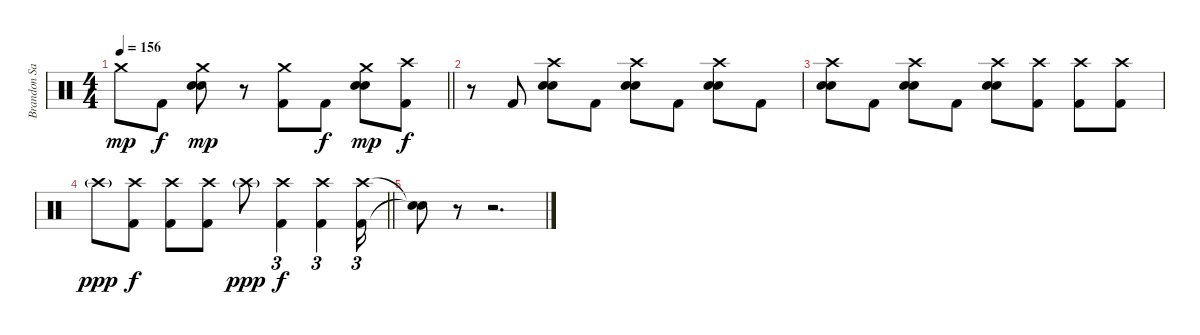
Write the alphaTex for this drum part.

\track ("Brandon Saller" "Brandon Sa") {instrument percussion}
\staff {score}
\articulation defaults
\ts (4 4)
\tempo 156
\clef neutral
\barLineRight lightlight
\ks c "Crash medium (hit)".8{dy mp} "Kick (hit) 2".8{dy f}
("Crash medium (hit)" "Snare (hit) 2" "Electric Snare (hit)").8{dy mp} r.8 ("Crash medium (hit)" "Kick (hit) 2").8 "Kick (hit) 2".8{dy f} ("Crash medium (hit)" "Snare (hit) 2" "Electric Snare (hit)").8{dy mp} ("Crash high (hit)" "Kick (hit) 2").8{dy f} |
r.8 "Kick (hit) 2".8 ("Crash high (hit)" "Snare (hit) 2" "Electric Snare (hit)").8 "Kick (hit) 2".8 ("Crash high (hit)" "Snare (hit) 2" "Electric Snare (hit)").8 "Kick (hit) 2".8 ("Crash high (hit)" "Snare (hit) 2" "Electric Snare (hit)").8 "Kick (hit) 2".8 |
("Crash high (hit)" "Snare (hit) 2" "Electric Snare (hit)").8 "Kick (hit) 2".8 ("Crash high (hit)" "Snare (hit) 2" "Electric Snare (hit)").8 "Kick (hit) 2".8 ("Crash high (hit)" "Snare (hit) 2" "Electric Snare (hit)").8 ("Crash high (hit)" "Kick (hit) 2").8 ("Crash high (hit)" "Kick (hit) 2").8 ("Crash high (hit)" "Kick (hit) 2").8 |
\barLineRight lightlight "Crash high (hit)"{g}.8{dy ppp}
("Crash high (hit)" "Kick (hit) 2").8{dy f} ("Crash high (hit)" "Kick (hit) 2").8 ("Crash high (hit)" "Kick (hit) 2").8 "Crash high (hit)"{g}.8{dy ppp} ("Crash high (hit)" "Kick (hit) 2").4{tu (3 2) dy f} ("Crash high (hit)" "Kick (hit) 2").4{tu (3 2)} ("Crash high (hit)" "Kick (hit) 2").16{tu (3 2)} |
("Snare (hit)"{t} "Snare (hit)"{t}).8 r.8 r.2{d}
